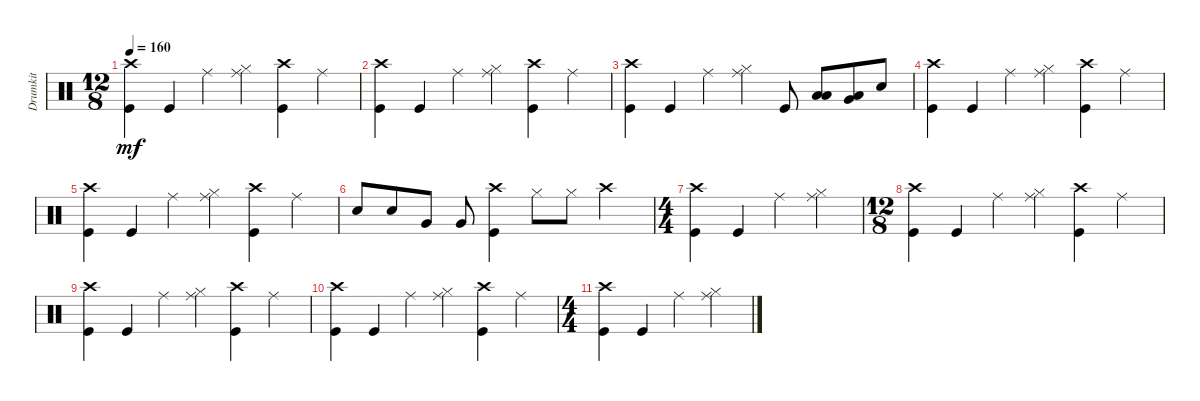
\track ("Drumkit" "Drumkit") {instrument percussion}
\staff {score}
\articulation defaults
\ts (12 8)
\tempo 160
\clef neutral
\ks c
("Crash high (hit)" "Kick (hit)").4{dy mf} "Kick (hit)".4 "Ride (middle)".4 ("Hi-Hat (closed)" "Ride (middle)").4 ("Crash high (hit)" "Kick (hit)").4 "Ride (middle)".4 |
("Crash high (hit)" "Kick (hit)").4 "Kick (hit)".4 "Ride (middle)".4 ("Hi-Hat (closed)" "Ride (middle)").4 ("Crash high (hit)" "Kick (hit)").4 "Ride (middle)".4 |
("Crash high (hit)" "Kick (hit)").4 "Kick (hit)".4 "Ride (middle)".4 ("Hi-Hat (closed)" "Ride (middle)").4 "Kick (hit)".8 ("Low Floor Tom (hit)" "Low Tom (hit)").8 ("Very Low Tom (hit)" "Low Tom (hit)").8 "Snare (hit) 2".8 |
("Crash high (hit)" "Kick (hit)").4 "Kick (hit)".4 "Ride (middle)".4 ("Hi-Hat (closed)" "Ride (middle)").4 ("Crash high (hit)" "Kick (hit)").4 "Ride (middle)".4 |
("Crash high (hit)" "Kick (hit)").4 "Kick (hit)".4 "Ride (middle)".4 ("Hi-Hat (closed)" "Ride (middle)").4 ("Crash high (hit)" "Kick (hit)").4 "Ride (middle)".4 |
"Snare (hit) 2".8 "Snare (hit) 2".8 "Very Low Tom (hit)".8 "Very Low Tom (hit)".8 ("Kick (hit)" "Crash high (hit)").4 "Hi-Hat (closed)".8 "Hi-Hat (closed)".8 "Crash high (hit)".2 |
\ts (4 4)
("Crash high (hit)" "Kick (hit)").4 "Kick (hit)".4 "Ride (middle)".4 ("Hi-Hat (closed)" "Ride (middle)").4 |
\ts (12 8)
("Crash high (hit)" "Kick (hit)").4 "Kick (hit)".4 "Ride (middle)".4 ("Hi-Hat (closed)" "Ride (middle)").4 ("Crash high (hit)" "Kick (hit)").4 "Ride (middle)".4 |
("Crash high (hit)" "Kick (hit)").4 "Kick (hit)".4 "Ride (middle)".4 ("Hi-Hat (closed)" "Ride (middle)").4 ("Crash high (hit)" "Kick (hit)").4 "Ride (middle)".4 |
("Crash high (hit)" "Kick (hit)").4 "Kick (hit)".4 "Ride (middle)".4 ("Hi-Hat (closed)" "Ride (middle)").4 ("Crash high (hit)" "Kick (hit)").4 "Ride (middle)".4 |
\ts (4 4)
("Crash high (hit)" "Kick (hit)").4 "Kick (hit)".4 "Ride (middle)".4 ("Hi-Hat (closed)" "Ride (middle)").4
